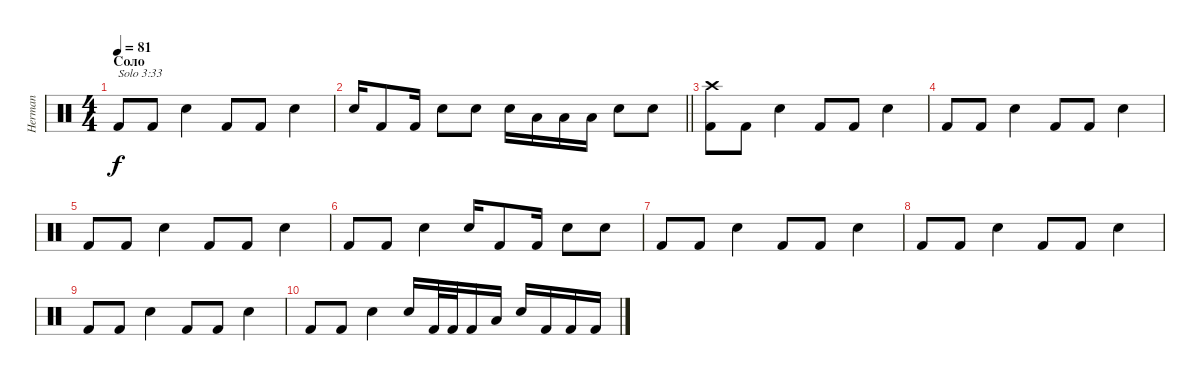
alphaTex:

\track ("Herman" "Herman") {instrument percussion}
\staff {score}
\articulation defaults
\ts (4 4)
\section ("" "Соло")
\tempo 81
\clef neutral
\ks c "Kick (hit) 2".8{txt "Solo 3:33" dy f} "Kick (hit) 2".8 "Snare (hit) 2".4 "Kick (hit) 2".8 "Kick (hit) 2".8 "Snare (hit) 2".4
|
\barLineRight lightlight "Snare (hit) 2".16 "Kick (hit) 2".8 "Kick (hit) 2".16 "Snare (hit) 2".8 "Snare (hit) 2".8 "Snare (hit) 2".16 "Low Floor Tom (hit)".16 "Low Floor Tom (hit)".16 "Low Floor Tom (hit)".16 "Snare (hit) 2".8 "Snare (hit) 2".8
|
("Crash high (hit)" "Kick (hit) 2").8 "Kick (hit) 2".8 "Snare (hit) 2".4 "Kick (hit) 2".8 "Kick (hit) 2".8 "Snare (hit) 2".4 |
"Kick (hit) 2".8 "Kick (hit) 2".8 "Snare (hit) 2".4 "Kick (hit) 2".8 "Kick (hit) 2".8 "Snare (hit) 2".4 |
"Kick (hit) 2".8 "Kick (hit) 2".8 "Snare (hit) 2".4 "Kick (hit) 2".8 "Kick (hit) 2".8 "Snare (hit) 2".4 |
"Kick (hit) 2".8 "Kick (hit) 2".8 "Snare (hit) 2".4 "Snare (hit) 2".16 "Kick (hit) 2".8 "Kick (hit) 2".16 "Snare (hit) 2".8 "Snare (hit) 2".8 |
"Kick (hit) 2".8 "Kick (hit) 2".8 "Snare (hit) 2".4 "Kick (hit) 2".8 "Kick (hit) 2".8 "Snare (hit) 2".4 |
"Kick (hit) 2".8 "Kick (hit) 2".8 "Snare (hit) 2".4 "Kick (hit) 2".8 "Kick (hit) 2".8 "Snare (hit) 2".4 |
"Kick (hit) 2".8 "Kick (hit) 2".8 "Snare (hit) 2".4 "Kick (hit) 2".8 "Kick (hit) 2".8 "Snare (hit) 2".4 |
"Kick (hit) 2".8 "Kick (hit) 2".8 "Snare (hit) 2".4 "Snare (hit) 2".16 "Kick (hit) 2".32 "Kick (hit) 2".32 "Kick (hit) 2".16 "Low Floor Tom (hit)".16 "Snare (hit) 2".16 "Kick (hit) 2".16 "Kick (hit) 2".16 "Kick (hit) 2".16
